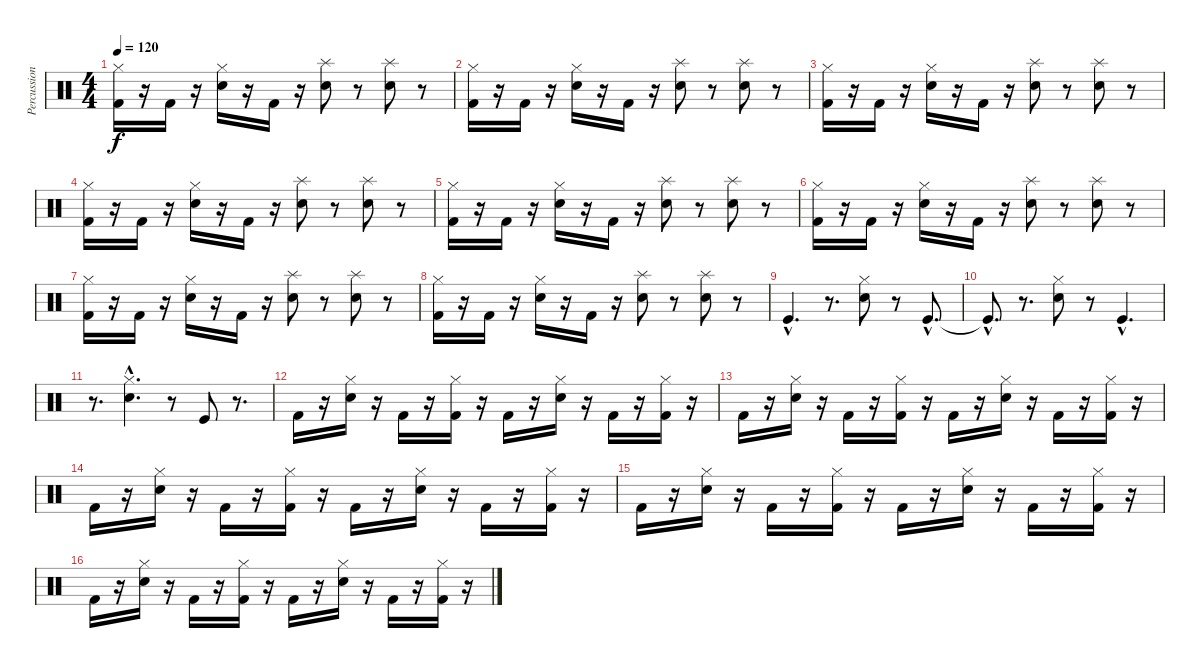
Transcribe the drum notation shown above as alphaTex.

\track ("Percussion" "Percussion") {instrument percussion}
\staff {score}
\articulation defaults
\ts (4 4)
\tempo 120
\clef neutral
\ks c
("Kick (hit) 2" "Hi-Hat (closed)").16{dy f} r.16 "Kick (hit) 2".16 r.16 ("Snare (hit) 2" "Hi-Hat (closed)").16 r.16 "Kick (hit) 2".16 r.16 ("Snare (hit) 2" "Splash (hit)").8 r.8 ("Snare (hit) 2" "Splash (hit)").8 r.8 |
("Kick (hit) 2" "Hi-Hat (closed)").16 r.16 "Kick (hit) 2".16 r.16 ("Snare (hit) 2" "Hi-Hat (closed)").16 r.16 "Kick (hit) 2".16 r.16 ("Snare (hit) 2" "Splash (hit)").8 r.8 ("Snare (hit) 2" "Splash (hit)").8 r.8 |
("Kick (hit) 2" "Hi-Hat (closed)").16 r.16 "Kick (hit) 2".16 r.16 ("Snare (hit) 2" "Hi-Hat (closed)").16 r.16 "Kick (hit) 2".16 r.16 ("Snare (hit) 2" "Splash (hit)").8 r.8 ("Snare (hit) 2" "Splash (hit)").8 r.8 |
("Kick (hit) 2" "Hi-Hat (closed)").16 r.16 "Kick (hit) 2".16 r.16 ("Snare (hit) 2" "Hi-Hat (closed)").16 r.16 "Kick (hit) 2".16 r.16 ("Snare (hit) 2" "Splash (hit)").8 r.8 ("Snare (hit) 2" "Splash (hit)").8 r.8 |
("Kick (hit) 2" "Hi-Hat (closed)").16 r.16 "Kick (hit) 2".16 r.16 ("Snare (hit) 2" "Hi-Hat (closed)").16 r.16 "Kick (hit) 2".16 r.16 ("Snare (hit) 2" "Splash (hit)").8 r.8 ("Snare (hit) 2" "Splash (hit)").8 r.8 |
("Kick (hit) 2" "Hi-Hat (closed)").16 r.16 "Kick (hit) 2".16 r.16 ("Snare (hit) 2" "Hi-Hat (closed)").16 r.16 "Kick (hit) 2".16 r.16 ("Snare (hit) 2" "Splash (hit)").8 r.8 ("Snare (hit) 2" "Splash (hit)").8 r.8 |
("Kick (hit) 2" "Hi-Hat (closed)").16 r.16 "Kick (hit) 2".16 r.16 ("Snare (hit) 2" "Hi-Hat (closed)").16 r.16 "Kick (hit) 2".16 r.16 ("Snare (hit) 2" "Splash (hit)").8 r.8 ("Snare (hit) 2" "Splash (hit)").8 r.8 |
("Kick (hit) 2" "Hi-Hat (closed)").16 r.16 "Kick (hit) 2".16 r.16 ("Snare (hit) 2" "Hi-Hat (closed)").16 r.16 "Kick (hit) 2".16 r.16 ("Snare (hit) 2" "Splash (hit)").8 r.8 ("Snare (hit) 2" "Splash (hit)").8 r.8 |
"Kick (hit)"{hac}.4{d} r.8{d} ("Snare (hit) 2" "Hi-Hat (closed)").8 r.8 "Kick (hit)"{hac}.8{d} |
"Kick (hit)"{hac t}.8{d} r.8{d} ("Snare (hit) 2" "Hi-Hat (closed)").8 r.8 "Kick (hit)"{hac}.4{d} |
r.8{d} ("Snare (hit) 2"{hac} "Hi-Hat (closed)"{hac}).4{d} r.8 "Kick (hit)".8 r.8{d} |
"Kick (hit) 2".16 r.16 ("Snare (hit) 2" "Hi-Hat (closed)").16 r.16 "Kick (hit) 2".16 r.16 ("Kick (hit) 2" "Hi-Hat (closed)").16 r.16 "Kick (hit) 2".16 r.16 ("Snare (hit) 2" "Hi-Hat (closed)").16 r.16 "Kick (hit) 2".16 r.16 ("Kick (hit) 2" "Hi-Hat (closed)").16 r.16 |
"Kick (hit) 2".16 r.16 ("Snare (hit) 2" "Hi-Hat (closed)").16 r.16 "Kick (hit) 2".16 r.16 ("Kick (hit) 2" "Hi-Hat (closed)").16 r.16 "Kick (hit) 2".16 r.16 ("Snare (hit) 2" "Hi-Hat (closed)").16 r.16 "Kick (hit) 2".16 r.16 ("Kick (hit) 2" "Hi-Hat (closed)").16 r.16 |
"Kick (hit) 2".16 r.16 ("Snare (hit) 2" "Hi-Hat (closed)").16 r.16 "Kick (hit) 2".16 r.16 ("Kick (hit) 2" "Hi-Hat (closed)").16 r.16 "Kick (hit) 2".16 r.16 ("Snare (hit) 2" "Hi-Hat (closed)").16 r.16 "Kick (hit) 2".16 r.16 ("Kick (hit) 2" "Hi-Hat (closed)").16 r.16 |
"Kick (hit) 2".16 r.16 ("Snare (hit) 2" "Hi-Hat (closed)").16 r.16 "Kick (hit) 2".16 r.16 ("Kick (hit) 2" "Hi-Hat (closed)").16 r.16 "Kick (hit) 2".16 r.16 ("Snare (hit) 2" "Hi-Hat (closed)").16 r.16 "Kick (hit) 2".16 r.16 ("Kick (hit) 2" "Hi-Hat (closed)").16 r.16 |
"Kick (hit) 2".16 r.16 ("Snare (hit) 2" "Hi-Hat (closed)").16 r.16 "Kick (hit) 2".16 r.16 ("Kick (hit) 2" "Hi-Hat (closed)").16 r.16 "Kick (hit) 2".16 r.16 ("Snare (hit) 2" "Hi-Hat (closed)").16 r.16 "Kick (hit) 2".16 r.16 ("Kick (hit) 2" "Hi-Hat (closed)").16 r.16
